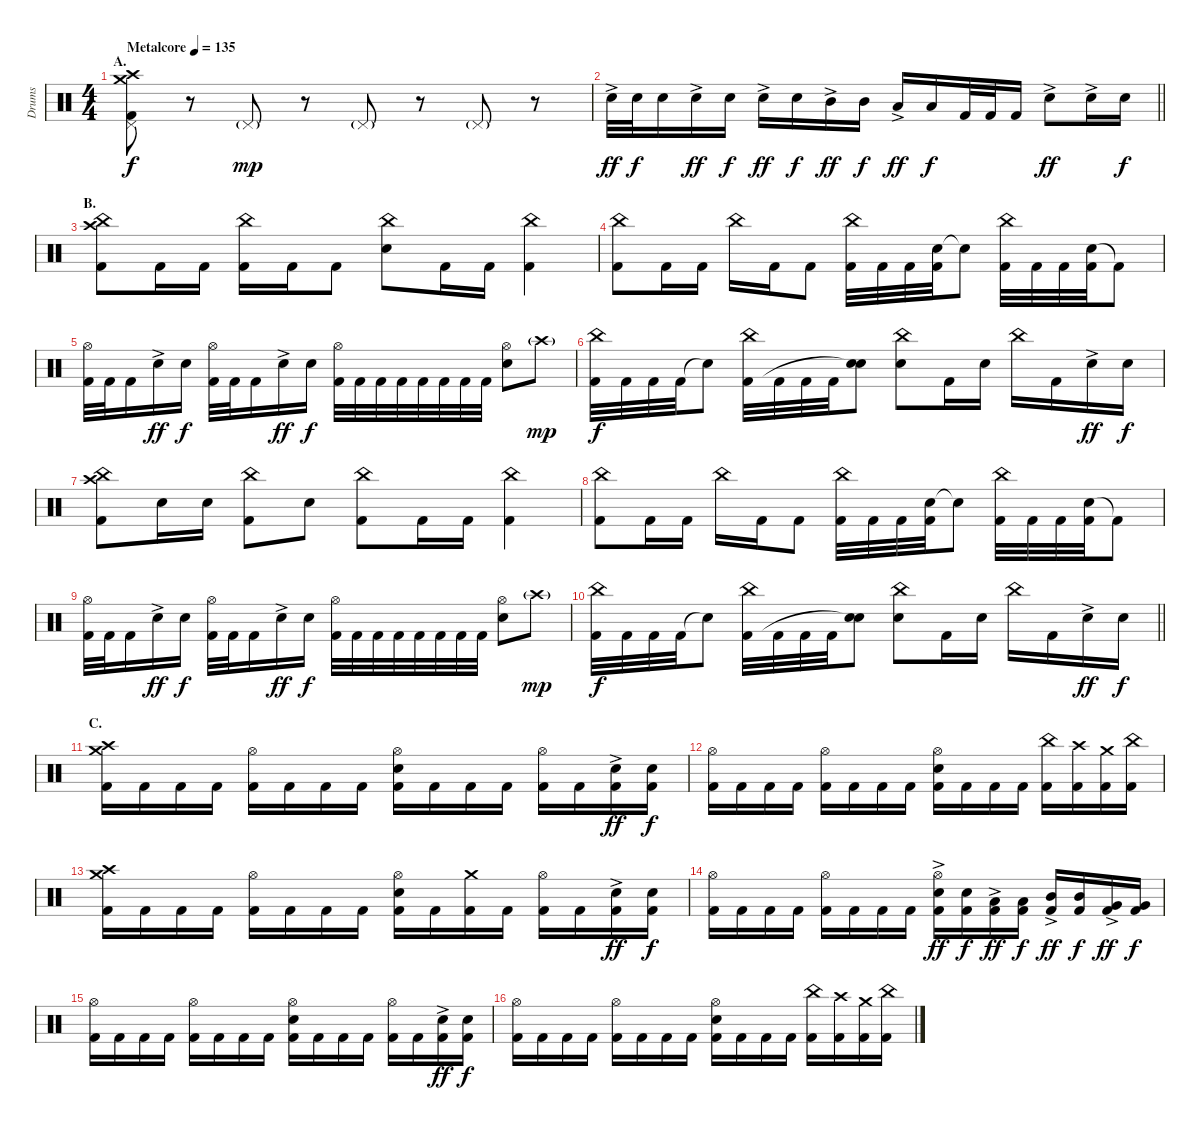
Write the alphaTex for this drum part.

\track ("Drums" "Drums") {instrument percussion}
\staff {score}
\articulation defaults
\ts (4 4)
\section ("" "A.")
\tempo (135 "Metalcore")
\clef neutral
\ks c
("Crash medium (hit)" "Crash high (hit)" "Pedal Hi-Hat (hit)" "Kick (hit) 2").8{dy f} r.8 "Pedal Hi-Hat (hit)"{g}.8{dy mp} r.8 "Pedal Hi-Hat (hit)"{g}.8 r.8 "Pedal Hi-Hat (hit)"{g}.8 r.8 |
\barLineRight lightlight "Electric Snare (hit)"{ac}.32{dy ff} "Electric Snare (hit)".32{dy f} "Electric Snare (hit)".16 "Electric Snare (hit)"{ac}.16{dy ff} "Electric Snare (hit)".16{dy f} "Electric Snare (hit)"{ac}.16{dy ff} "Electric Snare (hit)".16{dy f} "Mid Tom (hit)"{ac}.16{dy ff} "Mid Tom (hit)".16{dy f} "Low Tom (hit)"{ac}.16{dy ff} "Low Tom (hit)".16{dy f} "Kick (hit) 2".32 "Kick (hit) 2".32 "Kick (hit) 2".16 "Electric Snare (hit)"{ac}.8{dy ff} "Electric Snare (hit)"{ac}.16 "Electric Snare (hit)".16{dy f}
|
\section ("" "B.")
("China (hit)" "Crash high (hit)" "Kick (hit) 2").8 "Kick (hit) 2".16 "Kick (hit) 2".16 ("China (hit)" "Kick (hit) 2").16 "Kick (hit) 2".16 "Kick (hit) 2".8 ("China (hit)" "Electric Snare (hit)").8 "Kick (hit) 2".16 "Kick (hit) 2".16 ("China (hit)" "Kick (hit) 2").4 |
("China (hit)" "Kick (hit) 2").8 "Kick (hit) 2".16 "Kick (hit) 2".16 "China (hit)".16 "Kick (hit) 2".16 "Kick (hit) 2".8 ("China (hit)" "Kick (hit) 2").32 "Kick (hit) 2".32 "Kick (hit) 2".32 ("Electric Snare (hit)" "Kick (hit) 2").32 "Snare (hit)"{t}.8 ("China (hit)" "Kick (hit) 2").32 "Kick (hit) 2".32 "Kick (hit) 2".32 ("Electric Snare (hit)" "Kick (hit) 2").32 "Kick (hit) 2"{t}.8 |
("Hi-Hat (open)" "Kick (hit) 2").32 "Kick (hit) 2".32 "Kick (hit) 2".16 "Electric Snare (hit)"{ac}.16{dy ff} "Electric Snare (hit)".16{dy f} ("Hi-Hat (open)" "Kick (hit) 2").32 "Kick (hit) 2".32 "Kick (hit) 2".16 "Electric Snare (hit)"{ac}.16{dy ff} "Electric Snare (hit)".16{dy f} ("Hi-Hat (open)" "Kick (hit) 2").32 "Kick (hit) 2".32 "Kick (hit) 2".32 "Kick (hit) 2".32 "Kick (hit) 2".32 "Kick (hit) 2".32 "Kick (hit) 2".32 "Kick (hit) 2".32 ("Hi-Hat (open)" "Electric Snare (hit)").8 "Crash high (hit)"{g}.8{dy mp} |
("China (hit)" "Kick (hit) 2").32{dy f} "Kick (hit) 2".32 "Kick (hit) 2".32 "Kick (hit) 2".32 "Snare (hit)"{t}.8 ("China (hit)" "Kick (hit) 2").32 "Kick (hit) 2".32 "Kick (hit) 2".32 "Kick (hit) 2".32 ("Electric Snare (hit)" "Snare (hit)"{t}).8 ("China (hit)" "Electric Snare (hit)").8 "Kick (hit) 2".16 "Electric Snare (hit)".16 "China (hit)".16 "Kick (hit) 2".16 "Electric Snare (hit)"{ac}.16{dy ff} "Electric Snare (hit)".16{dy f} |
("China (hit)" "Crash high (hit)" "Kick (hit) 2").8 "Electric Snare (hit)".16 "Electric Snare (hit)".16 ("China (hit)" "Kick (hit) 2").8 "Electric Snare (hit)".8 ("China (hit)" "Kick (hit) 2").8 "Kick (hit) 2".16 "Kick (hit) 2".16 ("China (hit)" "Kick (hit) 2").4 |
("China (hit)" "Kick (hit) 2").8 "Kick (hit) 2".16 "Kick (hit) 2".16 "China (hit)".16 "Kick (hit) 2".16 "Kick (hit) 2".8 ("China (hit)" "Kick (hit) 2").32 "Kick (hit) 2".32 "Kick (hit) 2".32 ("Electric Snare (hit)" "Kick (hit) 2").32 "Snare (hit)"{t}.8 ("China (hit)" "Kick (hit) 2").32 "Kick (hit) 2".32 "Kick (hit) 2".32 ("Electric Snare (hit)" "Kick (hit) 2").32 "Kick (hit) 2"{t}.8 |
("Hi-Hat (open)" "Kick (hit) 2").32 "Kick (hit) 2".32 "Kick (hit) 2".16 "Electric Snare (hit)"{ac}.16{dy ff} "Electric Snare (hit)".16{dy f} ("Hi-Hat (open)" "Kick (hit) 2").32 "Kick (hit) 2".32 "Kick (hit) 2".16 "Electric Snare (hit)"{ac}.16{dy ff} "Electric Snare (hit)".16{dy f} ("Hi-Hat (open)" "Kick (hit) 2").32 "Kick (hit) 2".32 "Kick (hit) 2".32 "Kick (hit) 2".32 "Kick (hit) 2".32 "Kick (hit) 2".32 "Kick (hit) 2".32 "Kick (hit) 2".32 ("Hi-Hat (open)" "Electric Snare (hit)").8 "Crash high (hit)"{g}.8{dy mp} |
\barLineRight lightlight
("China (hit)" "Kick (hit) 2").32{dy f} "Kick (hit) 2".32 "Kick (hit) 2".32 "Kick (hit) 2".32 "Snare (hit)"{t}.8 ("China (hit)" "Kick (hit) 2").32 "Kick (hit) 2".32 "Kick (hit) 2".32 "Kick (hit) 2".32 ("Electric Snare (hit)" "Snare (hit)"{t}).8 ("China (hit)" "Electric Snare (hit)").8 "Kick (hit) 2".16 "Electric Snare (hit)".16 "China (hit)".16 "Kick (hit) 2".16 "Electric Snare (hit)"{ac}.16{dy ff} "Electric Snare (hit)".16{dy f} |
\section ("" "C.")
("Crash medium (hit)" "Crash high (hit)" "Kick (hit) 2").16 "Kick (hit) 2".16 "Kick (hit) 2".16 "Kick (hit) 2".16 ("Hi-Hat (open)" "Kick (hit) 2").16 "Kick (hit) 2".16 "Kick (hit) 2".16 "Kick (hit) 2".16 ("Hi-Hat (open)" "Electric Snare (hit)" "Kick (hit) 2").16 "Kick (hit) 2".16 "Kick (hit) 2".16 "Kick (hit) 2".16 ("Hi-Hat (open)" "Kick (hit) 2").16 "Kick (hit) 2".16 ("Electric Snare (hit)"{ac} "Kick (hit) 2").16{dy ff} ("Electric Snare (hit)" "Kick (hit) 2").16{dy f} |
("Hi-Hat (open)" "Kick (hit) 2").16 "Kick (hit) 2".16 "Kick (hit) 2".16 "Kick (hit) 2".16 ("Hi-Hat (open)" "Kick (hit) 2").16 "Kick (hit) 2".16 "Kick (hit) 2".16 "Kick (hit) 2".16 ("Hi-Hat (open)" "Electric Snare (hit)" "Kick (hit) 2").16 "Kick (hit) 2".16 "Kick (hit) 2".16 "Kick (hit) 2".16 ("China (hit)" "Kick (hit) 2").16 ("Crash high (hit)" "Kick (hit) 2").16 ("Crash medium (hit)" "Kick (hit) 2").16 ("China (hit)" "Kick (hit) 2").16 |
("Crash medium (hit)" "Crash high (hit)" "Kick (hit) 2").16 "Kick (hit) 2".16 "Kick (hit) 2".16 "Kick (hit) 2".16 ("Hi-Hat (open)" "Kick (hit) 2").16 "Kick (hit) 2".16 "Kick (hit) 2".16 "Kick (hit) 2".16 ("Hi-Hat (open)" "Electric Snare (hit)" "Kick (hit) 2").16 "Kick (hit) 2".16 ("Crash medium (hit)" "Kick (hit) 2").16 "Kick (hit) 2".16 ("Hi-Hat (open)" "Kick (hit) 2").16 "Kick (hit) 2".16 ("Electric Snare (hit)"{ac} "Kick (hit) 2").16{dy ff} ("Electric Snare (hit)" "Kick (hit) 2").16{dy f} |
("Hi-Hat (open)" "Kick (hit) 2").16 "Kick (hit) 2".16 "Kick (hit) 2".16 "Kick (hit) 2".16 ("Hi-Hat (open)" "Kick (hit) 2").16 "Kick (hit) 2".16 "Kick (hit) 2".16 "Kick (hit) 2".16 ("Hi-Hat (open)" "Electric Snare (hit)"{ac} "Kick (hit) 2").16{dy ff} ("Electric Snare (hit)" "Kick (hit) 2").16{dy f} ("Low Tom (hit)"{ac} "Kick (hit) 2").16{dy ff} ("Low Tom (hit)" "Kick (hit) 2").16{dy f} ("Mid Tom (hit)"{ac} "Kick (hit) 2").16{dy ff} ("Mid Tom (hit)" "Kick (hit) 2").16{dy f} ("Very Low Tom (hit)"{ac} "Kick (hit) 2").16{dy ff} ("Very Low Tom (hit)" "Kick (hit) 2").16{dy f} |
("Hi-Hat (open)" "Kick (hit) 2").16 "Kick (hit) 2".16 "Kick (hit) 2".16 "Kick (hit) 2".16 ("Hi-Hat (open)" "Kick (hit) 2").16 "Kick (hit) 2".16 "Kick (hit) 2".16 "Kick (hit) 2".16 ("Hi-Hat (open)" "Electric Snare (hit)" "Kick (hit) 2").16 "Kick (hit) 2".16 "Kick (hit) 2".16 "Kick (hit) 2".16 ("Hi-Hat (open)" "Kick (hit) 2").16 "Kick (hit) 2".16 ("Electric Snare (hit)"{ac} "Kick (hit) 2").16{dy ff} ("Electric Snare (hit)" "Kick (hit) 2").16{dy f} |
("Hi-Hat (open)" "Kick (hit) 2").16 "Kick (hit) 2".16 "Kick (hit) 2".16 "Kick (hit) 2".16 ("Hi-Hat (open)" "Kick (hit) 2").16 "Kick (hit) 2".16 "Kick (hit) 2".16 "Kick (hit) 2".16 ("Hi-Hat (open)" "Electric Snare (hit)" "Kick (hit) 2").16 "Kick (hit) 2".16 "Kick (hit) 2".16 "Kick (hit) 2".16 ("China (hit)" "Kick (hit) 2").16 ("Crash high (hit)" "Kick (hit) 2").16 ("Crash medium (hit)" "Kick (hit) 2").16 ("China (hit)" "Kick (hit) 2").16
